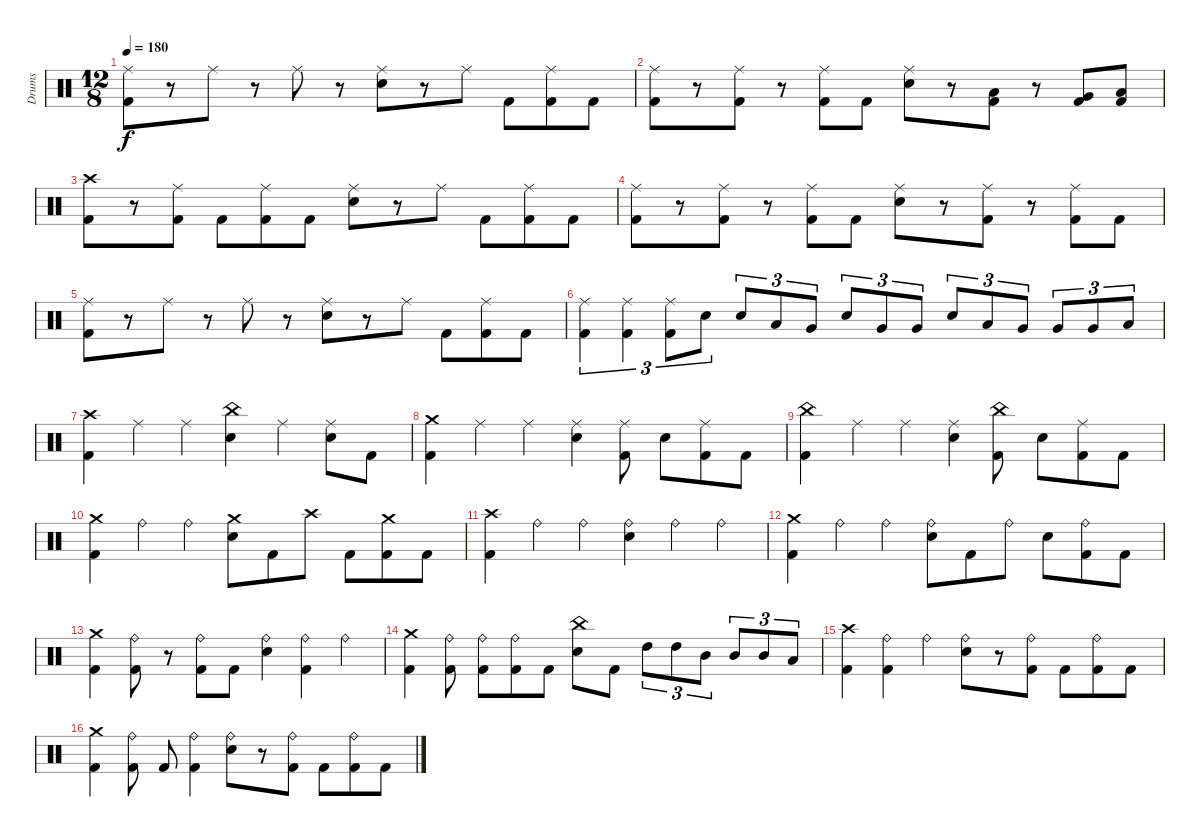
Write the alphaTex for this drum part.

\track ("Drums" "Drums") {instrument percussion}
\staff {score}
\articulation defaults
\ts (12 8)
\tempo 180
\clef neutral
\ks c
("Ride (middle)" "Kick (hit) 2").8{dy f} r.8 "Ride (middle)".8 r.8 "Ride (middle)".8 r.8 ("Ride (middle)" "Electric Snare (hit)").8 r.8 "Ride (middle)".8 "Kick (hit) 2".8 ("Ride (middle)" "Kick (hit) 2").8 "Kick (hit) 2".8 |
("Ride (middle)" "Kick (hit) 2").8 r.8 ("Ride (middle)" "Kick (hit) 2").8 r.8 ("Ride (middle)" "Kick (hit) 2").8 "Kick (hit) 2".8 ("Ride (middle)" "Electric Snare (hit)").8 r.8 ("Low Tom (hit)" "Kick (hit) 2").8 r.8 ("Very Low Tom (hit)" "Kick (hit) 2").8 ("Low Floor Tom (hit)" "Kick (hit) 2").8 |
("Crash high (hit)" "Kick (hit) 2").8 r.8 ("Ride (middle)" "Kick (hit) 2").8 "Kick (hit) 2".8 ("Ride (middle)" "Kick (hit) 2").8 "Kick (hit) 2".8 ("Ride (middle)" "Electric Snare (hit)").8 r.8 "Ride (middle)".8 "Kick (hit) 2".8 ("Ride (middle)" "Kick (hit) 2").8 "Kick (hit) 2".8 |
("Ride (middle)" "Kick (hit) 2").8 r.8 ("Ride (middle)" "Kick (hit) 2").8 r.8 ("Ride (middle)" "Kick (hit) 2").8 "Kick (hit) 2".8 ("Ride (middle)" "Electric Snare (hit)").8 r.8 ("Ride (middle)" "Kick (hit) 2").8 r.8 ("Ride (middle)" "Kick (hit) 2").8 "Kick (hit) 2".8 |
("Ride (middle)" "Kick (hit) 2").8 r.8 "Ride (middle)".8 r.8 "Ride (middle)".8 r.8 ("Ride (middle)" "Electric Snare (hit)").8 r.8 "Ride (middle)".8 "Kick (hit) 2".8 ("Ride (middle)" "Kick (hit) 2").8 "Kick (hit) 2".8 |
("Ride (middle)" "Kick (hit) 2").4{tu (3 2)} ("Ride (middle)" "Kick (hit) 2").4{tu (3 2)} ("Ride (middle)" "Kick (hit) 2").8{tu (3 2)} "Electric Snare (hit)".8{tu (3 2)} "Electric Snare (hit)".8{tu (3 2)} "Low Tom (hit)".8{tu (3 2)} "Very Low Tom (hit)".8{tu (3 2)} "Electric Snare (hit)".8{tu (3 2)} "Very Low Tom (hit)".8{tu (3 2)} "Very Low Tom (hit)".8{tu (3 2)} "Electric Snare (hit)".8{tu (3 2)} "Low Floor Tom (hit)".8{tu (3 2)} "Very Low Tom (hit)".8{tu (3 2)} "Very Low Tom (hit)".8{tu (3 2)} "Very Low Tom (hit)".8{tu (3 2)} "Low Floor Tom (hit)".8{tu (3 2)} |
("Crash high (hit)" "Kick (hit) 2").4 "Ride (middle)".4 "Ride (middle)".4 ("China (hit)" "Electric Snare (hit)").4 "Ride (middle)".4 ("Ride (middle)" "Electric Snare (hit)").8 "Kick (hit) 2".8 |
("Crash medium (hit)" "Kick (hit) 2").4 "Ride (middle)".4 "Ride (middle)".4 ("Ride (middle)" "Electric Snare (hit)").4 ("Ride (middle)" "Kick (hit) 2").8 "Electric Snare (hit)".8 ("Ride (middle)" "Kick (hit) 2").8 "Kick (hit) 2".8 |
("China (hit)" "Kick (hit) 2").4 "Ride (middle)".4 "Ride (middle)".4 ("Ride (middle)" "Electric Snare (hit)").4 ("China (hit)" "Kick (hit) 2").8 "Electric Snare (hit)".8 ("Ride (middle)" "Kick (hit) 2").8 "Kick (hit) 2".8 |
("Crash medium (hit)" "Kick (hit) 2").4 "Ride (bell)".4 "Ride (bell)".4 ("Crash medium (hit)" "Electric Snare (hit)").8 "Kick (hit) 2".8 "Crash high (hit)".8 "Kick (hit) 2".8 ("Crash medium (hit)" "Kick (hit) 2").8 "Kick (hit) 2".8 |
("Crash high (hit)" "Kick (hit) 2").4 "Ride (bell)".4 "Ride (bell)".4 ("Ride (bell)" "Electric Snare (hit)").4 "Ride (bell)".4 "Ride (bell)".4 |
("Crash medium (hit)" "Kick (hit) 2").4 "Ride (bell)".4 "Ride (bell)".4 ("Ride (bell)" "Electric Snare (hit)").8 "Kick (hit) 2".8 "Ride (bell)".8 "Electric Snare (hit)".8 ("Ride (bell)" "Kick (hit) 2").8 "Kick (hit) 2".8 |
("Crash medium (hit)" "Kick (hit) 2").4 ("Ride (bell)" "Kick (hit) 2").8 r.8 ("Ride (bell)" "Kick (hit) 2").8 "Kick (hit) 2".8 ("Ride (bell)" "Electric Snare (hit)").4 ("Ride (bell)" "Kick (hit) 2").4 "Ride (bell)".4 |
("Crash medium (hit)" "Kick (hit) 2").4 ("Ride (bell)" "Kick (hit) 2").8 ("Ride (bell)" "Kick (hit) 2").8 ("Ride (bell)" "Kick (hit) 2").8 "Kick (hit) 2".8 ("China (hit)" "Electric Snare (hit)").8 "Kick (hit) 2".8 "High Tom (hit)".8{tu (3 2)} "High Tom (hit)".8{tu (3 2)} "Mid Tom (hit)".8{tu (3 2)} "Mid Tom (hit)".8{tu (3 2)} "Mid Tom (hit)".8{tu (3 2)} "Low Tom (hit)".8{tu (3 2)} |
("Crash high (hit)" "Kick (hit) 2").4 ("Ride (bell)" "Kick (hit) 2").4 "Ride (bell)".4 ("Ride (bell)" "Electric Snare (hit)").8 r.8 ("Ride (bell)" "Kick (hit) 2").8 "Kick (hit) 2".8 ("Ride (bell)" "Kick (hit) 2").8 "Kick (hit) 2".8 |
("Crash medium (hit)" "Kick (hit) 2").4 ("Ride (bell)" "Kick (hit) 2").8 "Kick (hit) 2".8 ("Ride (bell)" "Kick (hit) 2").4 ("Ride (bell)" "Electric Snare (hit)").8 r.8 ("Ride (bell)" "Kick (hit) 2").8 "Kick (hit) 2".8 ("Ride (bell)" "Kick (hit) 2").8 "Kick (hit) 2".8
